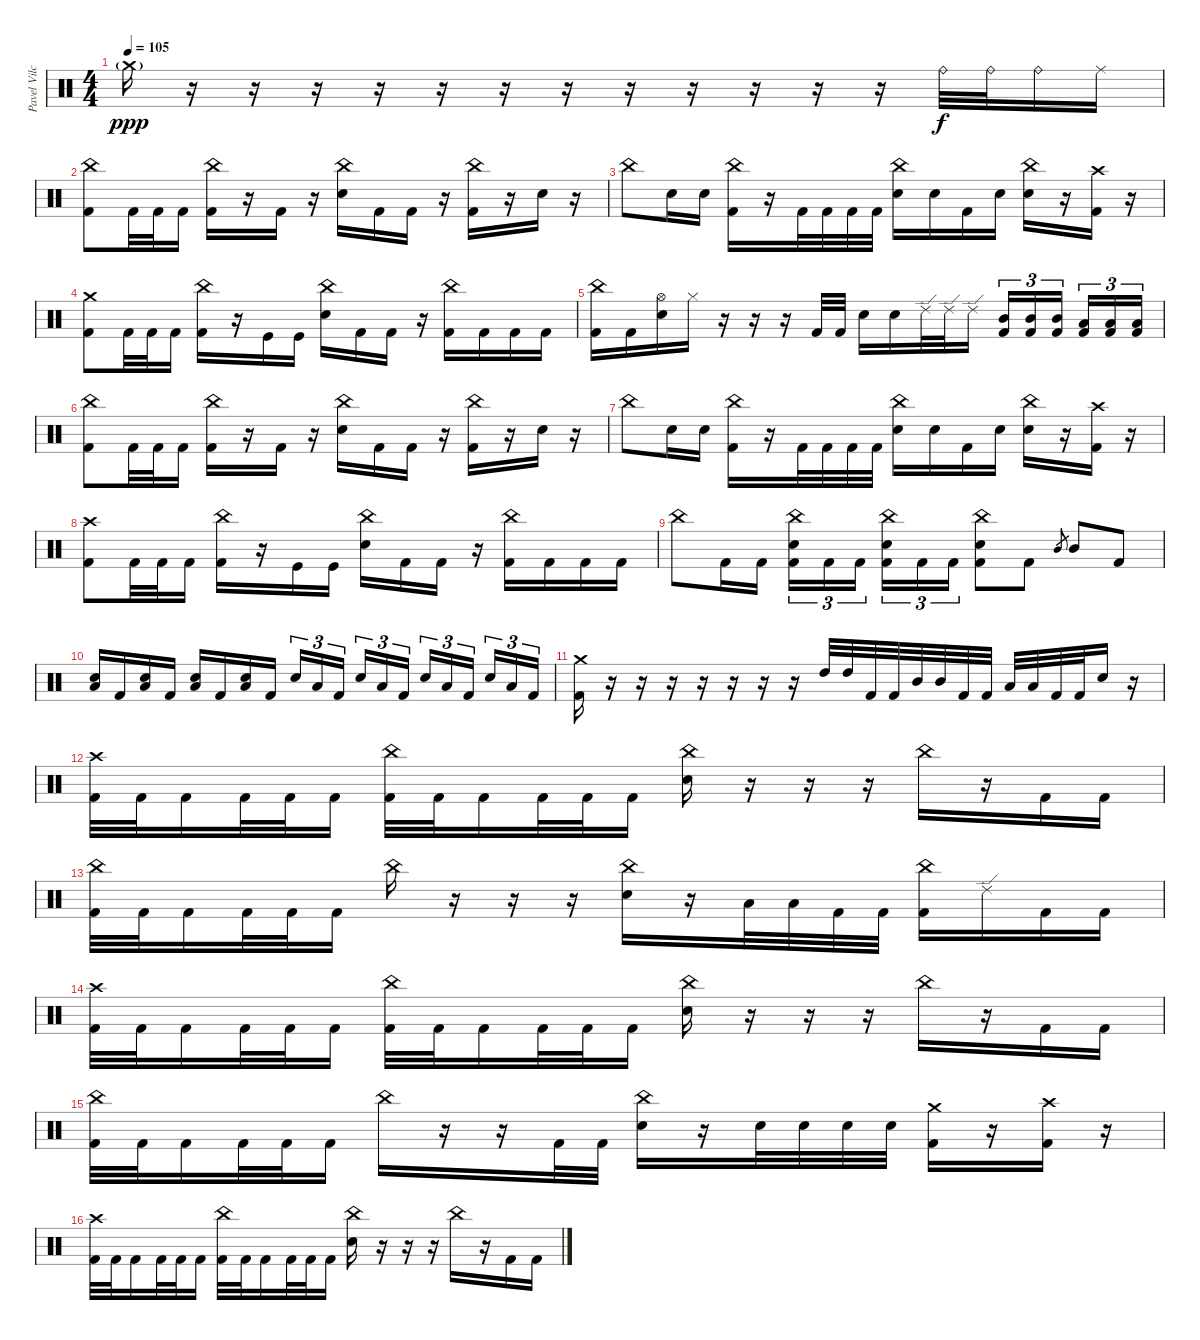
\track ("Pavel Vilchytski " "Pavel Vilc") {instrument percussion}
\staff {score}
\articulation defaults
\ts (4 4)
\tempo 105
\clef neutral
\ks c "Crash medium (hit)"{g}.16{dy ppp}
r.16 r.16 r.16 r.16 r.16 r.16 r.16 r.16 r.16 r.16 r.16 r.16 "Ride (bell)".32{dy f} "Ride (bell)".32 "Ride (bell)".16 "Ride (middle)".16 |
("China (hit)" "Kick (hit) 2").8 "Kick (hit) 2".32 "Kick (hit) 2".32 "Kick (hit) 2".16 ("China (hit)" "Kick (hit) 2").16 r.16 "Kick (hit) 2".16 r.16 ("China (hit)" "Electric Snare (hit)").16 "Kick (hit) 2".16 "Kick (hit) 2".16 r.16 ("China (hit)" "Kick (hit) 2").16 r.16 "Electric Snare (hit)".16 r.16 |
"China (hit)".8 "Electric Snare (hit)".16 "Electric Snare (hit)".16 ("China (hit)" "Kick (hit) 2").16 r.16 "Kick (hit) 2".32 "Kick (hit) 2".32 "Kick (hit) 2".32 "Kick (hit) 2".32 ("China (hit)" "Electric Snare (hit)").16 "Electric Snare (hit)".16 "Kick (hit) 2".16 "Electric Snare (hit)".16 ("China (hit)" "Electric Snare (hit)").16 r.16 ("Crash high (hit)" "Kick (hit) 2").16 r.16 |
("Crash medium (hit)" "Kick (hit) 2").8 "Kick (hit) 2".32 "Kick (hit) 2".32 "Kick (hit) 2".16 ("China (hit)" "Kick (hit) 2").16 r.16 "Kick (hit)".16 "Kick (hit)".16 ("China (hit)" "Electric Snare (hit)").16 "Kick (hit) 2".16 "Kick (hit) 2".16 r.16 ("China (hit)" "Kick (hit) 2").16 "Kick (hit) 2".16 "Kick (hit) 2".16 "Kick (hit) 2".16 |
("China (hit)" "Kick (hit) 2").16 "Kick (hit) 2".16 ("Hi-Hat (open)" "Electric Snare (hit)").16 "Hi-Hat (closed)".16 r.16 r.16 r.16 "Kick (hit) 2".32 "Kick (hit) 2".32 "Electric Snare (hit)".16 "Electric Snare (hit)".16 "Ride (edge) 2".32 "Ride (edge) 2".32 "Ride (edge) 2".16 ("Mid Tom (hit)" "Kick (hit) 2").16{tu (3 2)} ("Mid Tom (hit)" "Kick (hit) 2").16{tu (3 2)} ("Mid Tom (hit)" "Kick (hit) 2").16{tu (3 2) beam splitsecondary} ("Low Tom (hit)" "Kick (hit) 2").16{tu (3 2)} ("Low Tom (hit)" "Kick (hit) 2").16{tu (3 2)} ("Low Tom (hit)" "Kick (hit) 2").16{tu (3 2)} |
("China (hit)" "Kick (hit) 2").8 "Kick (hit) 2".32 "Kick (hit) 2".32 "Kick (hit) 2".16 ("China (hit)" "Kick (hit) 2").16 r.16 "Kick (hit) 2".16 r.16 ("China (hit)" "Electric Snare (hit)").16 "Kick (hit) 2".16 "Kick (hit) 2".16 r.16 ("China (hit)" "Kick (hit) 2").16 r.16 "Electric Snare (hit)".16 r.16 |
"China (hit)".8 "Electric Snare (hit)".16 "Electric Snare (hit)".16 ("China (hit)" "Kick (hit) 2").16 r.16 "Kick (hit) 2".32 "Kick (hit) 2".32 "Kick (hit) 2".32 "Kick (hit) 2".32 ("China (hit)" "Electric Snare (hit)").16 "Electric Snare (hit)".16 "Kick (hit) 2".16 "Electric Snare (hit)".16 ("China (hit)" "Electric Snare (hit)").16 r.16 ("Crash high (hit)" "Kick (hit) 2").16 r.16 |
("Crash high (hit)" "Kick (hit) 2").8 "Kick (hit) 2".32 "Kick (hit) 2".32 "Kick (hit) 2".16 ("China (hit)" "Kick (hit) 2").16 r.16 "Kick (hit)".16 "Kick (hit)".16 ("China (hit)" "Electric Snare (hit)").16 "Kick (hit) 2".16 "Kick (hit) 2".16 r.16 ("China (hit)" "Kick (hit) 2").16 "Kick (hit) 2".16 "Kick (hit) 2".16 "Kick (hit) 2".16 |
"China (hit)".8 "Kick (hit) 2".16 "Kick (hit) 2".16 ("China (hit)" "Electric Snare (hit)" "Kick (hit) 2").16{tu (3 2)} "Kick (hit) 2".16{tu (3 2)} "Kick (hit) 2".16{tu (3 2) beam splitsecondary} ("China (hit)" "Electric Snare (hit)" "Kick (hit) 2").16{tu (3 2)} "Kick (hit) 2".16{tu (3 2)} "Kick (hit) 2".16{tu (3 2)} ("China (hit)" "Electric Snare (hit)" "Kick (hit) 2").8 "Kick (hit) 2".8 "Mid Tom (hit)".8{gr} "Mid Tom (hit)".8 "Kick (hit) 2".8 |
("Low Tom (hit)" "Electric Snare (hit)").16 "Kick (hit) 2".16 ("Low Tom (hit)" "Electric Snare (hit)").16 "Kick (hit) 2".16 ("Low Tom (hit)" "Electric Snare (hit)").16 "Kick (hit) 2".16 ("Low Tom (hit)" "Electric Snare (hit)").16 "Kick (hit) 2".16 "Electric Snare (hit)".16{tu (3 2)} "Low Tom (hit)".16{tu (3 2)} "Kick (hit) 2".16{tu (3 2) beam splitsecondary} "Electric Snare (hit)".16{tu (3 2)} "Low Tom (hit)".16{tu (3 2)} "Kick (hit) 2".16{tu (3 2)} "Electric Snare (hit)".16{tu (3 2)} "Low Tom (hit)".16{tu (3 2)} "Kick (hit) 2".16{tu (3 2) beam splitsecondary} "Electric Snare (hit)".16{tu (3 2)} "Low Tom (hit)".16{tu (3 2)} "Kick (hit) 2".16{tu (3 2)} |
("Crash medium (hit)" "Kick (hit) 2").16 r.16 r.16 r.16 r.16 r.16 r.16 r.16 "High Tom (hit)".32 "High Tom (hit)".32 "Kick (hit) 2".32 "Kick (hit) 2".32 "Mid Tom (hit)".32 "Mid Tom (hit)".32 "Kick (hit) 2".32 "Kick (hit) 2".32 "Low Tom (hit)".32 "Low Tom (hit)".32 "Kick (hit) 2".32 "Kick (hit) 2".32 "Electric Snare (hit)".16 r.16 |
("Crash high (hit)" "Kick (hit) 2").32 "Kick (hit) 2".32 "Kick (hit) 2".16 "Kick (hit) 2".32 "Kick (hit) 2".32 "Kick (hit) 2".16 ("China (hit)" "Kick (hit) 2").32 "Kick (hit) 2".32 "Kick (hit) 2".16 "Kick (hit) 2".32 "Kick (hit) 2".32 "Kick (hit) 2".16 ("China (hit)" "Electric Snare (hit)").16 r.16 r.16 r.16 "China (hit)".16 r.16 "Kick (hit) 2".16 "Kick (hit) 2".16 |
("China (hit)" "Kick (hit) 2").32 "Kick (hit) 2".32 "Kick (hit) 2".16 "Kick (hit) 2".32 "Kick (hit) 2".32 "Kick (hit) 2".16 "China (hit)".16 r.16 r.16 r.16 ("China (hit)" "Electric Snare (hit)").16 r.16 "Low Tom (hit)".32 "Low Tom (hit)".32 "Kick (hit) 2".32 "Kick (hit) 2".32 ("China (hit)" "Kick (hit) 2").16 "Ride (edge) 2".16 "Kick (hit) 2".16 "Kick (hit) 2".16 |
("Crash high (hit)" "Kick (hit) 2").32 "Kick (hit) 2".32 "Kick (hit) 2".16 "Kick (hit) 2".32 "Kick (hit) 2".32 "Kick (hit) 2".16 ("China (hit)" "Kick (hit) 2").32 "Kick (hit) 2".32 "Kick (hit) 2".16 "Kick (hit) 2".32 "Kick (hit) 2".32 "Kick (hit) 2".16 ("China (hit)" "Electric Snare (hit)").16 r.16 r.16 r.16 "China (hit)".16 r.16 "Kick (hit) 2".16 "Kick (hit) 2".16 |
("China (hit)" "Kick (hit) 2").32 "Kick (hit) 2".32 "Kick (hit) 2".16 "Kick (hit) 2".32 "Kick (hit) 2".32 "Kick (hit) 2".16 "China (hit)".16 r.16 r.16 "Kick (hit) 2".32 "Kick (hit) 2".32 ("China (hit)" "Electric Snare (hit)").16 r.16 "Electric Snare (hit)".32 "Electric Snare (hit)".32 "Electric Snare (hit)".32 "Electric Snare (hit)".32 ("Crash medium (hit)" "Kick (hit) 2").16 r.16 ("Crash high (hit)" "Kick (hit) 2").16 r.16 |
("Crash high (hit)" "Kick (hit) 2").32 "Kick (hit) 2".32 "Kick (hit) 2".16 "Kick (hit) 2".32 "Kick (hit) 2".32 "Kick (hit) 2".16 ("China (hit)" "Kick (hit) 2").32 "Kick (hit) 2".32 "Kick (hit) 2".16 "Kick (hit) 2".32 "Kick (hit) 2".32 "Kick (hit) 2".16 ("China (hit)" "Electric Snare (hit)").16 r.16 r.16 r.16 "China (hit)".16 r.16 "Kick (hit) 2".16 "Kick (hit) 2".16
